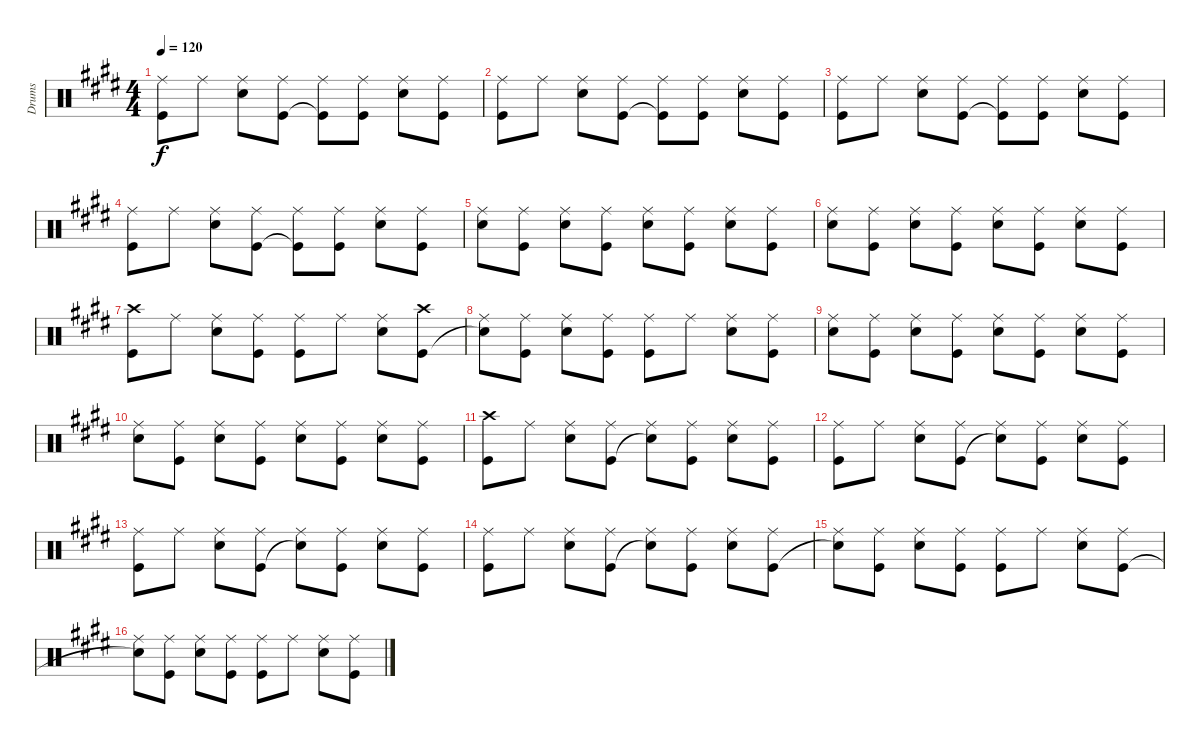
\track ("Drums" "Drums") {instrument percussion}
\staff {score}
\articulation defaults
\ts (4 4)
\tempo 120
\clef neutral
\ks e
("Ride (middle)" "Kick (hit)").8{dy f} "Ride (middle)".8 ("Ride (middle)" "Snare (hit) 2").8 ("Ride (middle)" "Kick (hit)").8 ("Ride (middle)" "Kick (hit)"{t}).8 ("Ride (middle)" "Kick (hit)").8 ("Ride (middle)" "Snare (hit) 2").8 ("Ride (middle)" "Kick (hit)").8 |
("Ride (middle)" "Kick (hit)").8 "Ride (middle)".8 ("Ride (middle)" "Snare (hit) 2").8 ("Ride (middle)" "Kick (hit)").8 ("Ride (middle)" "Kick (hit)"{t}).8 ("Ride (middle)" "Kick (hit)").8 ("Ride (middle)" "Snare (hit) 2").8 ("Ride (middle)" "Kick (hit)").8 |
("Ride (middle)" "Kick (hit)").8 "Ride (middle)".8 ("Ride (middle)" "Snare (hit) 2").8 ("Ride (middle)" "Kick (hit)").8 ("Ride (middle)" "Kick (hit)"{t}).8 ("Ride (middle)" "Kick (hit)").8 ("Ride (middle)" "Snare (hit) 2").8 ("Ride (middle)" "Kick (hit)").8 |
("Ride (middle)" "Kick (hit)").8 "Ride (middle)".8 ("Ride (middle)" "Snare (hit) 2").8 ("Ride (middle)" "Kick (hit)").8 ("Ride (middle)" "Kick (hit)"{t}).8 ("Ride (middle)" "Kick (hit)").8 ("Ride (middle)" "Snare (hit) 2").8 ("Ride (middle)" "Kick (hit)").8 |
("Ride (middle)" "Snare (hit) 2").8 ("Ride (middle)" "Kick (hit)").8 ("Ride (middle)" "Snare (hit) 2").8 ("Ride (middle)" "Kick (hit)").8 ("Ride (middle)" "Snare (hit) 2").8 ("Ride (middle)" "Kick (hit)").8 ("Ride (middle)" "Snare (hit) 2").8 ("Ride (middle)" "Kick (hit)").8 |
("Ride (middle)" "Snare (hit) 2").8 ("Ride (middle)" "Kick (hit)").8 ("Ride (middle)" "Snare (hit) 2").8 ("Ride (middle)" "Kick (hit)").8 ("Ride (middle)" "Snare (hit) 2").8 ("Ride (middle)" "Kick (hit)").8 ("Ride (middle)" "Snare (hit) 2").8 ("Ride (middle)" "Kick (hit)").8 |
("Crash high (hit)" "Kick (hit)").8 "Ride (middle)".8 ("Ride (middle)" "Snare (hit) 2").8 ("Ride (middle)" "Kick (hit)").8 ("Ride (middle)" "Kick (hit)").8 "Ride (middle)".8 ("Ride (middle)" "Snare (hit) 2").8 ("Crash high (hit)" "Kick (hit)").8 |
("Ride (middle)" "Snare (hit)"{t}).8 ("Ride (middle)" "Kick (hit)").8 ("Ride (middle)" "Snare (hit) 2").8 ("Ride (middle)" "Kick (hit)").8 ("Ride (middle)" "Kick (hit)").8 "Ride (middle)".8 ("Ride (middle)" "Snare (hit) 2").8 ("Ride (middle)" "Kick (hit)").8 |
("Ride (middle)" "Snare (hit) 2").8 ("Ride (middle)" "Kick (hit)").8 ("Ride (middle)" "Snare (hit) 2").8 ("Ride (middle)" "Kick (hit)").8 ("Ride (middle)" "Snare (hit) 2").8 ("Ride (middle)" "Kick (hit)").8 ("Ride (middle)" "Snare (hit) 2").8 ("Ride (middle)" "Kick (hit)").8 |
("Ride (middle)" "Snare (hit) 2").8 ("Ride (middle)" "Kick (hit)").8 ("Ride (middle)" "Snare (hit) 2").8 ("Ride (middle)" "Kick (hit)").8 ("Ride (middle)" "Snare (hit) 2").8 ("Ride (middle)" "Kick (hit)").8 ("Ride (middle)" "Snare (hit) 2").8 ("Ride (middle)" "Kick (hit)").8 |
("Crash high (hit)" "Kick (hit)").8 "Ride (middle)".8 ("Ride (middle)" "Snare (hit) 2").8 ("Ride (middle)" "Kick (hit)").8 ("Ride (middle)" "Snare (hit)"{t}).8 ("Ride (middle)" "Kick (hit)").8 ("Ride (middle)" "Snare (hit) 2").8 ("Ride (middle)" "Kick (hit)").8 |
("Ride (middle)" "Kick (hit)").8 "Ride (middle)".8 ("Ride (middle)" "Snare (hit) 2").8 ("Ride (middle)" "Kick (hit)").8 ("Ride (middle)" "Snare (hit)"{t}).8 ("Ride (middle)" "Kick (hit)").8 ("Ride (middle)" "Snare (hit) 2").8 ("Ride (middle)" "Kick (hit)").8 |
("Ride (middle)" "Kick (hit)").8 "Ride (middle)".8 ("Ride (middle)" "Snare (hit) 2").8 ("Ride (middle)" "Kick (hit)").8 ("Ride (middle)" "Snare (hit)"{t}).8 ("Ride (middle)" "Kick (hit)").8 ("Ride (middle)" "Snare (hit) 2").8 ("Ride (middle)" "Kick (hit)").8 |
("Ride (middle)" "Kick (hit)").8 "Ride (middle)".8 ("Ride (middle)" "Snare (hit) 2").8 ("Ride (middle)" "Kick (hit)").8 ("Ride (middle)" "Snare (hit)"{t}).8 ("Ride (middle)" "Kick (hit)").8 ("Ride (middle)" "Snare (hit) 2").8 ("Ride (middle)" "Kick (hit)").8 |
("Ride (middle)" "Snare (hit)"{t}).8 ("Ride (middle)" "Kick (hit)").8 ("Ride (middle)" "Snare (hit) 2").8 ("Ride (middle)" "Kick (hit)").8 ("Ride (middle)" "Kick (hit)").8 "Ride (middle)".8 ("Ride (middle)" "Snare (hit) 2").8 ("Ride (middle)" "Kick (hit)").8 |
("Ride (middle)" "Snare (hit)"{t}).8 ("Ride (middle)" "Kick (hit)").8 ("Ride (middle)" "Snare (hit) 2").8 ("Ride (middle)" "Kick (hit)").8 ("Ride (middle)" "Kick (hit)").8 "Ride (middle)".8 ("Ride (middle)" "Snare (hit) 2").8 ("Ride (middle)" "Kick (hit)").8
